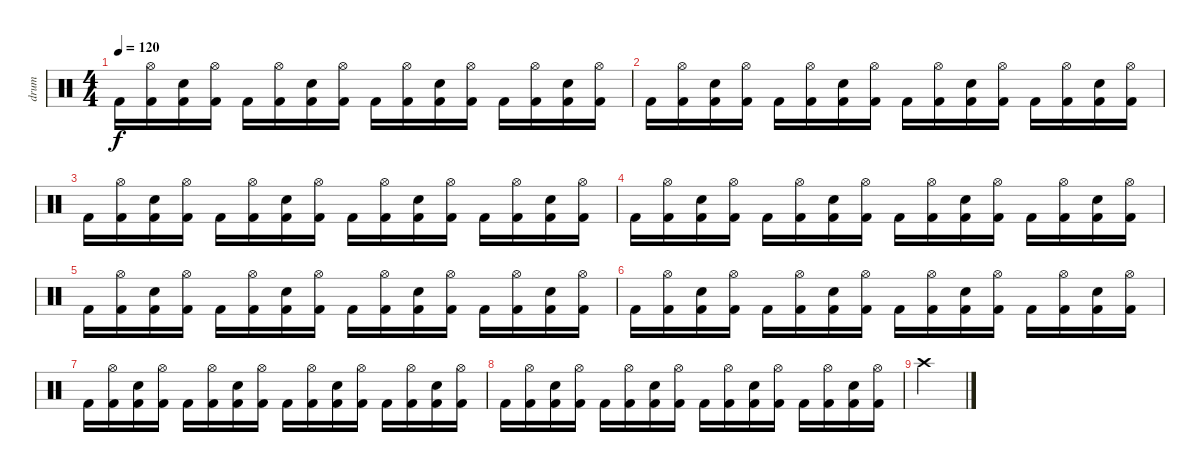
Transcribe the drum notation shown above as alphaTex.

\track ("drum" "drum") {instrument percussion}
\staff {score}
\articulation defaults
\ts (4 4)
\tempo 120
\clef neutral
\ks c "Kick (hit) 2".16{dy f}
("Hi-Hat (open)" "Kick (hit) 2").16 ("Snare (hit) 2" "Kick (hit) 2").16 ("Hi-Hat (open)" "Kick (hit) 2").16 "Kick (hit) 2".16 ("Hi-Hat (open)" "Kick (hit) 2").16 ("Snare (hit) 2" "Kick (hit) 2").16 ("Hi-Hat (open)" "Kick (hit) 2").16 "Kick (hit) 2".16 ("Hi-Hat (open)" "Kick (hit) 2").16 ("Snare (hit) 2" "Kick (hit) 2").16 ("Hi-Hat (open)" "Kick (hit) 2").16 "Kick (hit) 2".16 ("Hi-Hat (open)" "Kick (hit) 2").16 ("Snare (hit) 2" "Kick (hit) 2").16 ("Hi-Hat (open)" "Kick (hit) 2").16 |
"Kick (hit) 2".16 ("Hi-Hat (open)" "Kick (hit) 2").16 ("Snare (hit) 2" "Kick (hit) 2").16 ("Hi-Hat (open)" "Kick (hit) 2").16 "Kick (hit) 2".16 ("Hi-Hat (open)" "Kick (hit) 2").16 ("Snare (hit) 2" "Kick (hit) 2").16 ("Hi-Hat (open)" "Kick (hit) 2").16 "Kick (hit) 2".16 ("Hi-Hat (open)" "Kick (hit) 2").16 ("Snare (hit) 2" "Kick (hit) 2").16 ("Hi-Hat (open)" "Kick (hit) 2").16 "Kick (hit) 2".16 ("Hi-Hat (open)" "Kick (hit) 2").16 ("Snare (hit) 2" "Kick (hit) 2").16 ("Hi-Hat (open)" "Kick (hit) 2").16 |
"Kick (hit) 2".16 ("Hi-Hat (open)" "Kick (hit) 2").16 ("Snare (hit) 2" "Kick (hit) 2").16 ("Hi-Hat (open)" "Kick (hit) 2").16 "Kick (hit) 2".16 ("Hi-Hat (open)" "Kick (hit) 2").16 ("Snare (hit) 2" "Kick (hit) 2").16 ("Hi-Hat (open)" "Kick (hit) 2").16 "Kick (hit) 2".16 ("Hi-Hat (open)" "Kick (hit) 2").16 ("Snare (hit) 2" "Kick (hit) 2").16 ("Hi-Hat (open)" "Kick (hit) 2").16 "Kick (hit) 2".16 ("Hi-Hat (open)" "Kick (hit) 2").16 ("Snare (hit) 2" "Kick (hit) 2").16 ("Hi-Hat (open)" "Kick (hit) 2").16 |
"Kick (hit) 2".16 ("Hi-Hat (open)" "Kick (hit) 2").16 ("Snare (hit) 2" "Kick (hit) 2").16 ("Hi-Hat (open)" "Kick (hit) 2").16 "Kick (hit) 2".16 ("Hi-Hat (open)" "Kick (hit) 2").16 ("Snare (hit) 2" "Kick (hit) 2").16 ("Hi-Hat (open)" "Kick (hit) 2").16 "Kick (hit) 2".16 ("Hi-Hat (open)" "Kick (hit) 2").16 ("Snare (hit) 2" "Kick (hit) 2").16 ("Hi-Hat (open)" "Kick (hit) 2").16 "Kick (hit) 2".16 ("Hi-Hat (open)" "Kick (hit) 2").16 ("Snare (hit) 2" "Kick (hit) 2").16 ("Hi-Hat (open)" "Kick (hit) 2").16 |
"Kick (hit) 2".16 ("Hi-Hat (open)" "Kick (hit) 2").16 ("Snare (hit) 2" "Kick (hit) 2").16 ("Hi-Hat (open)" "Kick (hit) 2").16 "Kick (hit) 2".16 ("Hi-Hat (open)" "Kick (hit) 2").16 ("Snare (hit) 2" "Kick (hit) 2").16 ("Hi-Hat (open)" "Kick (hit) 2").16 "Kick (hit) 2".16 ("Hi-Hat (open)" "Kick (hit) 2").16 ("Snare (hit) 2" "Kick (hit) 2").16 ("Hi-Hat (open)" "Kick (hit) 2").16 "Kick (hit) 2".16 ("Hi-Hat (open)" "Kick (hit) 2").16 ("Snare (hit) 2" "Kick (hit) 2").16 ("Hi-Hat (open)" "Kick (hit) 2").16 |
"Kick (hit) 2".16 ("Hi-Hat (open)" "Kick (hit) 2").16 ("Snare (hit) 2" "Kick (hit) 2").16 ("Hi-Hat (open)" "Kick (hit) 2").16 "Kick (hit) 2".16 ("Hi-Hat (open)" "Kick (hit) 2").16 ("Snare (hit) 2" "Kick (hit) 2").16 ("Hi-Hat (open)" "Kick (hit) 2").16 "Kick (hit) 2".16 ("Hi-Hat (open)" "Kick (hit) 2").16 ("Snare (hit) 2" "Kick (hit) 2").16 ("Hi-Hat (open)" "Kick (hit) 2").16 "Kick (hit) 2".16 ("Hi-Hat (open)" "Kick (hit) 2").16 ("Snare (hit) 2" "Kick (hit) 2").16 ("Hi-Hat (open)" "Kick (hit) 2").16 |
"Kick (hit) 2".16 ("Hi-Hat (open)" "Kick (hit) 2").16 ("Snare (hit) 2" "Kick (hit) 2").16 ("Hi-Hat (open)" "Kick (hit) 2").16 "Kick (hit) 2".16 ("Hi-Hat (open)" "Kick (hit) 2").16 ("Snare (hit) 2" "Kick (hit) 2").16 ("Hi-Hat (open)" "Kick (hit) 2").16 "Kick (hit) 2".16 ("Hi-Hat (open)" "Kick (hit) 2").16 ("Snare (hit) 2" "Kick (hit) 2").16 ("Hi-Hat (open)" "Kick (hit) 2").16 "Kick (hit) 2".16 ("Hi-Hat (open)" "Kick (hit) 2").16 ("Snare (hit) 2" "Kick (hit) 2").16 ("Hi-Hat (open)" "Kick (hit) 2").16 |
"Kick (hit) 2".16 ("Hi-Hat (open)" "Kick (hit) 2").16 ("Snare (hit) 2" "Kick (hit) 2").16 ("Hi-Hat (open)" "Kick (hit) 2").16 "Kick (hit) 2".16 ("Hi-Hat (open)" "Kick (hit) 2").16 ("Snare (hit) 2" "Kick (hit) 2").16 ("Hi-Hat (open)" "Kick (hit) 2").16 "Kick (hit) 2".16 ("Hi-Hat (open)" "Kick (hit) 2").16 ("Snare (hit) 2" "Kick (hit) 2").16 ("Hi-Hat (open)" "Kick (hit) 2").16 "Kick (hit) 2".16 ("Hi-Hat (open)" "Kick (hit) 2").16 ("Snare (hit) 2" "Kick (hit) 2").16 ("Hi-Hat (open)" "Kick (hit) 2").16 |
"Crash high (hit)".2
